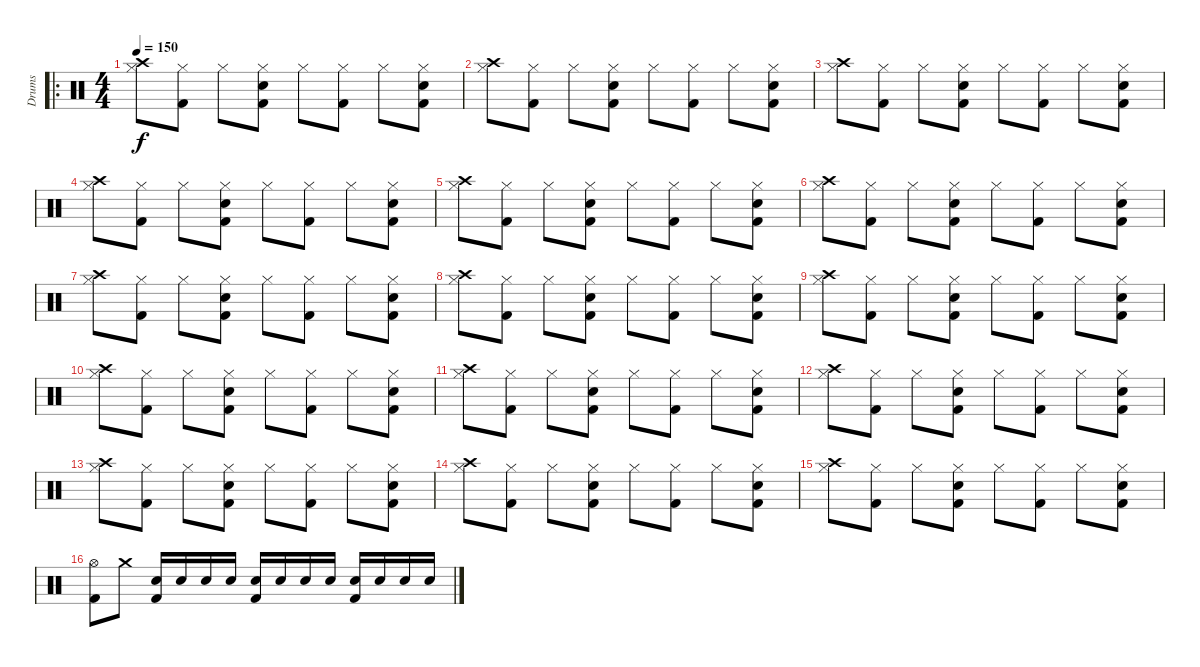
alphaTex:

\track ("Drums" "Drums") {instrument percussion}
\staff {score}
\articulation defaults
\ro
\ts (4 4)
\tempo 150
\clef neutral
\ks c
("Crash high (hit)" "Hi-Hat (closed)").8{dy f} ("Kick (hit) 2" "Hi-Hat (closed)").8 "Hi-Hat (closed)".8 ("Electric Snare (hit)" "Kick (hit) 2" "Hi-Hat (closed)").8 "Hi-Hat (closed)".8 ("Kick (hit) 2" "Hi-Hat (closed)").8 "Hi-Hat (closed)".8 ("Electric Snare (hit)" "Kick (hit) 2" "Hi-Hat (closed)").8 |
("Crash high (hit)" "Hi-Hat (closed)").8 ("Kick (hit) 2" "Hi-Hat (closed)").8 "Hi-Hat (closed)".8 ("Electric Snare (hit)" "Kick (hit) 2" "Hi-Hat (closed)").8 "Hi-Hat (closed)".8 ("Kick (hit) 2" "Hi-Hat (closed)").8 "Hi-Hat (closed)".8 ("Electric Snare (hit)" "Kick (hit) 2" "Hi-Hat (closed)").8 |
("Crash high (hit)" "Hi-Hat (closed)").8 ("Kick (hit) 2" "Hi-Hat (closed)").8 "Hi-Hat (closed)".8 ("Electric Snare (hit)" "Kick (hit) 2" "Hi-Hat (closed)").8 "Hi-Hat (closed)".8 ("Kick (hit) 2" "Hi-Hat (closed)").8 "Hi-Hat (closed)".8 ("Electric Snare (hit)" "Kick (hit) 2" "Hi-Hat (closed)").8 |
("Crash high (hit)" "Hi-Hat (closed)").8 ("Kick (hit) 2" "Hi-Hat (closed)").8 "Hi-Hat (closed)".8 ("Electric Snare (hit)" "Kick (hit) 2" "Hi-Hat (closed)").8 "Hi-Hat (closed)".8 ("Kick (hit) 2" "Hi-Hat (closed)").8 "Hi-Hat (closed)".8 ("Electric Snare (hit)" "Kick (hit) 2" "Hi-Hat (closed)").8 |
("Crash high (hit)" "Hi-Hat (closed)").8 ("Kick (hit) 2" "Hi-Hat (closed)").8 "Hi-Hat (closed)".8 ("Electric Snare (hit)" "Kick (hit) 2" "Hi-Hat (closed)").8 "Hi-Hat (closed)".8 ("Kick (hit) 2" "Hi-Hat (closed)").8 "Hi-Hat (closed)".8 ("Electric Snare (hit)" "Kick (hit) 2" "Hi-Hat (closed)").8 |
("Crash high (hit)" "Hi-Hat (closed)").8 ("Kick (hit) 2" "Hi-Hat (closed)").8 "Hi-Hat (closed)".8 ("Electric Snare (hit)" "Kick (hit) 2" "Hi-Hat (closed)").8 "Hi-Hat (closed)".8 ("Kick (hit) 2" "Hi-Hat (closed)").8 "Hi-Hat (closed)".8 ("Electric Snare (hit)" "Kick (hit) 2" "Hi-Hat (closed)").8 |
("Crash high (hit)" "Hi-Hat (closed)").8 ("Kick (hit) 2" "Hi-Hat (closed)").8 "Hi-Hat (closed)".8 ("Electric Snare (hit)" "Kick (hit) 2" "Hi-Hat (closed)").8 "Hi-Hat (closed)".8 ("Kick (hit) 2" "Hi-Hat (closed)").8 "Hi-Hat (closed)".8 ("Electric Snare (hit)" "Kick (hit) 2" "Hi-Hat (closed)").8 |
("Crash high (hit)" "Hi-Hat (closed)").8 ("Kick (hit) 2" "Hi-Hat (closed)").8 "Hi-Hat (closed)".8 ("Electric Snare (hit)" "Kick (hit) 2" "Hi-Hat (closed)").8 "Hi-Hat (closed)".8 ("Kick (hit) 2" "Hi-Hat (closed)").8 "Hi-Hat (closed)".8 ("Electric Snare (hit)" "Kick (hit) 2" "Hi-Hat (closed)").8 |
("Crash high (hit)" "Hi-Hat (closed)").8 ("Kick (hit) 2" "Hi-Hat (closed)").8 "Hi-Hat (closed)".8 ("Electric Snare (hit)" "Kick (hit) 2" "Hi-Hat (closed)").8 "Hi-Hat (closed)".8 ("Kick (hit) 2" "Hi-Hat (closed)").8 "Hi-Hat (closed)".8 ("Electric Snare (hit)" "Kick (hit) 2" "Hi-Hat (closed)").8 |
("Crash high (hit)" "Hi-Hat (closed)").8 ("Kick (hit) 2" "Hi-Hat (closed)").8 "Hi-Hat (closed)".8 ("Electric Snare (hit)" "Kick (hit) 2" "Hi-Hat (closed)").8 "Hi-Hat (closed)".8 ("Kick (hit) 2" "Hi-Hat (closed)").8 "Hi-Hat (closed)".8 ("Electric Snare (hit)" "Kick (hit) 2" "Hi-Hat (closed)").8 |
("Crash high (hit)" "Hi-Hat (closed)").8 ("Kick (hit) 2" "Hi-Hat (closed)").8 "Hi-Hat (closed)".8 ("Electric Snare (hit)" "Kick (hit) 2" "Hi-Hat (closed)").8 "Hi-Hat (closed)".8 ("Kick (hit) 2" "Hi-Hat (closed)").8 "Hi-Hat (closed)".8 ("Electric Snare (hit)" "Kick (hit) 2" "Hi-Hat (closed)").8 |
("Crash high (hit)" "Hi-Hat (closed)").8 ("Kick (hit) 2" "Hi-Hat (closed)").8 "Hi-Hat (closed)".8 ("Electric Snare (hit)" "Kick (hit) 2" "Hi-Hat (closed)").8 "Hi-Hat (closed)".8 ("Kick (hit) 2" "Hi-Hat (closed)").8 "Hi-Hat (closed)".8 ("Electric Snare (hit)" "Kick (hit) 2" "Hi-Hat (closed)").8 |
("Crash high (hit)" "Hi-Hat (closed)").8 ("Kick (hit) 2" "Hi-Hat (closed)").8 "Hi-Hat (closed)".8 ("Electric Snare (hit)" "Kick (hit) 2" "Hi-Hat (closed)").8 "Hi-Hat (closed)".8 ("Kick (hit) 2" "Hi-Hat (closed)").8 "Hi-Hat (closed)".8 ("Electric Snare (hit)" "Kick (hit) 2" "Hi-Hat (closed)").8 |
("Crash high (hit)" "Hi-Hat (closed)").8 ("Kick (hit) 2" "Hi-Hat (closed)").8 "Hi-Hat (closed)".8 ("Electric Snare (hit)" "Kick (hit) 2" "Hi-Hat (closed)").8 "Hi-Hat (closed)".8 ("Kick (hit) 2" "Hi-Hat (closed)").8 "Hi-Hat (closed)".8 ("Electric Snare (hit)" "Kick (hit) 2" "Hi-Hat (closed)").8 |
("Crash high (hit)" "Hi-Hat (closed)").8 ("Kick (hit) 2" "Hi-Hat (closed)").8 "Hi-Hat (closed)".8 ("Electric Snare (hit)" "Kick (hit) 2" "Hi-Hat (closed)").8 "Hi-Hat (closed)".8 ("Kick (hit) 2" "Hi-Hat (closed)").8 "Hi-Hat (closed)".8 ("Electric Snare (hit)" "Kick (hit) 2" "Hi-Hat (closed)").8 |
("Kick (hit) 2" "Hi-Hat (open)").8 "Crash medium (hit)".8 ("Kick (hit) 2" "Electric Snare (hit)").16 "Electric Snare (hit)".16 "Electric Snare (hit)".16 "Electric Snare (hit)".16 ("Kick (hit) 2" "Electric Snare (hit)").16 "Electric Snare (hit)".16 "Electric Snare (hit)".16 "Electric Snare (hit)".16 ("Kick (hit) 2" "Electric Snare (hit)").16 "Electric Snare (hit)".16 "Electric Snare (hit)".16 "Electric Snare (hit)".16
